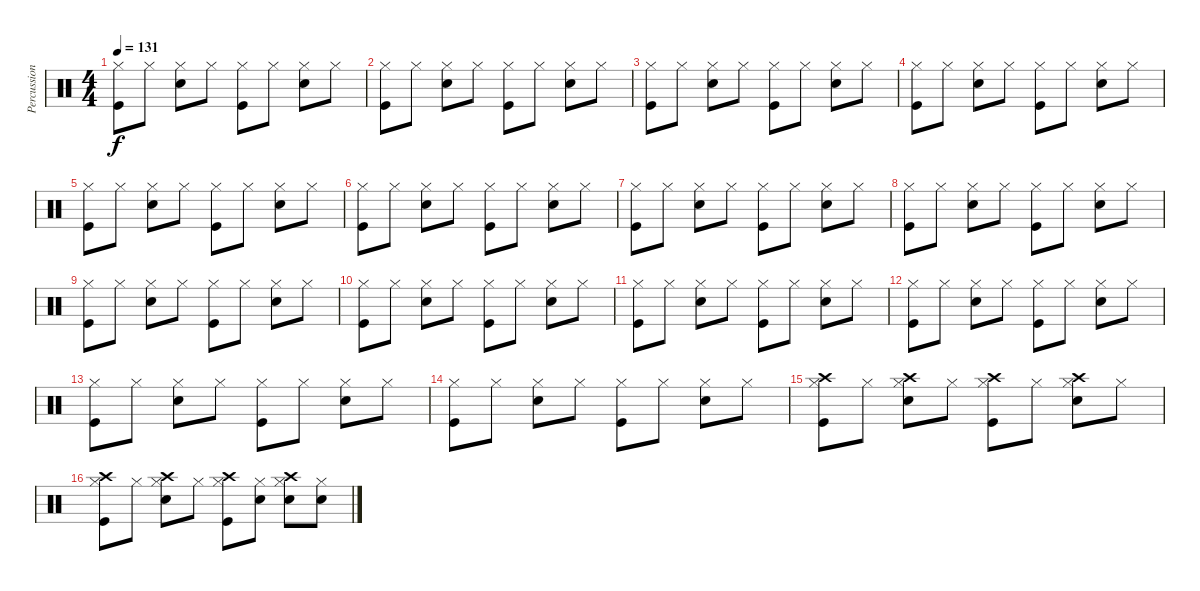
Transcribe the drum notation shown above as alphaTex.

\track ("Percussion" "Percussion") {instrument percussion}
\staff {score}
\articulation defaults
\ts (4 4)
\tempo 131
\clef neutral
\ks c
("Hi-Hat (closed)" "Kick (hit)").8{dy f} "Hi-Hat (closed)".8 ("Hi-Hat (closed)" "Snare (hit) 2").8 "Hi-Hat (closed)".8 ("Hi-Hat (closed)" "Kick (hit)").8 "Hi-Hat (closed)".8 ("Hi-Hat (closed)" "Snare (hit) 2").8 "Hi-Hat (closed)".8 |
("Hi-Hat (closed)" "Kick (hit)").8 "Hi-Hat (closed)".8 ("Hi-Hat (closed)" "Snare (hit) 2").8 "Hi-Hat (closed)".8 ("Hi-Hat (closed)" "Kick (hit)").8 "Hi-Hat (closed)".8 ("Hi-Hat (closed)" "Snare (hit) 2").8 "Hi-Hat (closed)".8 |
("Hi-Hat (closed)" "Kick (hit)").8 "Hi-Hat (closed)".8 ("Hi-Hat (closed)" "Snare (hit) 2").8 "Hi-Hat (closed)".8 ("Hi-Hat (closed)" "Kick (hit)").8 "Hi-Hat (closed)".8 ("Hi-Hat (closed)" "Snare (hit) 2").8 "Hi-Hat (closed)".8 |
("Hi-Hat (closed)" "Kick (hit)").8 "Hi-Hat (closed)".8 ("Hi-Hat (closed)" "Snare (hit) 2").8 "Hi-Hat (closed)".8 ("Hi-Hat (closed)" "Kick (hit)").8 "Hi-Hat (closed)".8 ("Hi-Hat (closed)" "Snare (hit) 2").8 "Hi-Hat (closed)".8 |
("Hi-Hat (closed)" "Kick (hit)").8 "Hi-Hat (closed)".8 ("Hi-Hat (closed)" "Snare (hit) 2").8 "Hi-Hat (closed)".8 ("Hi-Hat (closed)" "Kick (hit)").8 "Hi-Hat (closed)".8 ("Hi-Hat (closed)" "Snare (hit) 2").8 "Hi-Hat (closed)".8 |
("Hi-Hat (closed)" "Kick (hit)").8 "Hi-Hat (closed)".8 ("Hi-Hat (closed)" "Snare (hit) 2").8 "Hi-Hat (closed)".8 ("Hi-Hat (closed)" "Kick (hit)").8 "Hi-Hat (closed)".8 ("Hi-Hat (closed)" "Snare (hit) 2").8 "Hi-Hat (closed)".8 |
("Hi-Hat (closed)" "Kick (hit)").8 "Hi-Hat (closed)".8 ("Hi-Hat (closed)" "Snare (hit) 2").8 "Hi-Hat (closed)".8 ("Hi-Hat (closed)" "Kick (hit)").8 "Hi-Hat (closed)".8 ("Hi-Hat (closed)" "Snare (hit) 2").8 "Hi-Hat (closed)".8 |
("Hi-Hat (closed)" "Kick (hit)").8 "Hi-Hat (closed)".8 ("Hi-Hat (closed)" "Snare (hit) 2").8 "Hi-Hat (closed)".8 ("Hi-Hat (closed)" "Kick (hit)").8 "Hi-Hat (closed)".8 ("Hi-Hat (closed)" "Snare (hit) 2").8 "Hi-Hat (closed)".8 |
("Hi-Hat (closed)" "Kick (hit)").8 "Hi-Hat (closed)".8 ("Hi-Hat (closed)" "Snare (hit) 2").8 "Hi-Hat (closed)".8 ("Hi-Hat (closed)" "Kick (hit)").8 "Hi-Hat (closed)".8 ("Hi-Hat (closed)" "Snare (hit) 2").8 "Hi-Hat (closed)".8 |
("Hi-Hat (closed)" "Kick (hit)").8 "Hi-Hat (closed)".8 ("Hi-Hat (closed)" "Snare (hit) 2").8 "Hi-Hat (closed)".8 ("Hi-Hat (closed)" "Kick (hit)").8 "Hi-Hat (closed)".8 ("Hi-Hat (closed)" "Snare (hit) 2").8 "Hi-Hat (closed)".8 |
("Hi-Hat (closed)" "Kick (hit)").8 "Hi-Hat (closed)".8 ("Hi-Hat (closed)" "Snare (hit) 2").8 "Hi-Hat (closed)".8 ("Hi-Hat (closed)" "Kick (hit)").8 "Hi-Hat (closed)".8 ("Hi-Hat (closed)" "Snare (hit) 2").8 "Hi-Hat (closed)".8 |
("Hi-Hat (closed)" "Kick (hit)").8 "Hi-Hat (closed)".8 ("Hi-Hat (closed)" "Snare (hit) 2").8 "Hi-Hat (closed)".8 ("Hi-Hat (closed)" "Kick (hit)").8 "Hi-Hat (closed)".8 ("Hi-Hat (closed)" "Snare (hit) 2").8 "Hi-Hat (closed)".8 |
("Hi-Hat (closed)" "Kick (hit)").8 "Hi-Hat (closed)".8 ("Hi-Hat (closed)" "Snare (hit) 2").8 "Hi-Hat (closed)".8 ("Hi-Hat (closed)" "Kick (hit)").8 "Hi-Hat (closed)".8 ("Hi-Hat (closed)" "Snare (hit) 2").8 "Hi-Hat (closed)".8 |
("Hi-Hat (closed)" "Kick (hit)").8 "Hi-Hat (closed)".8 ("Hi-Hat (closed)" "Snare (hit) 2").8 "Hi-Hat (closed)".8 ("Hi-Hat (closed)" "Kick (hit)").8 "Hi-Hat (closed)".8 ("Hi-Hat (closed)" "Snare (hit) 2").8 "Hi-Hat (closed)".8 |
("Hi-Hat (closed)" "Kick (hit)" "Crash high (hit)").8 "Hi-Hat (closed)".8 ("Hi-Hat (closed)" "Snare (hit) 2" "Crash high (hit)").8 "Hi-Hat (closed)".8 ("Hi-Hat (closed)" "Kick (hit)" "Crash high (hit)").8 "Hi-Hat (closed)".8 ("Hi-Hat (closed)" "Snare (hit) 2" "Crash high (hit)").8 "Hi-Hat (closed)".8 |
("Hi-Hat (closed)" "Kick (hit)" "Crash high (hit)").8 "Hi-Hat (closed)".8 ("Hi-Hat (closed)" "Snare (hit) 2" "Crash high (hit)").8 "Hi-Hat (closed)".8 ("Hi-Hat (closed)" "Kick (hit)" "Crash high (hit)").8 ("Hi-Hat (closed)" "Snare (hit) 2").8 ("Hi-Hat (closed)" "Snare (hit) 2" "Crash high (hit)").8 ("Hi-Hat (closed)" "Snare (hit) 2").8
